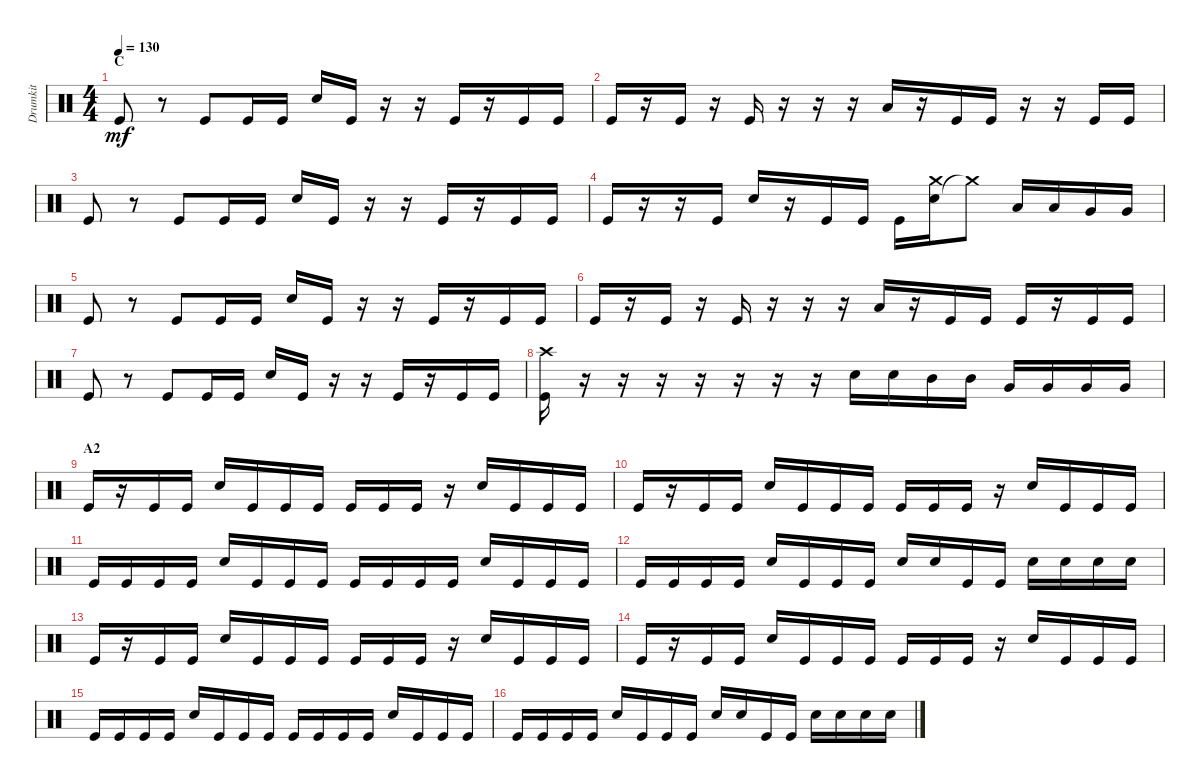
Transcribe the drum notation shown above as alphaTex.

\track ("Drumkit" "Drumkit") {instrument percussion}
\staff {score}
\articulation defaults
\ts (4 4)
\section ("" "C")
\tempo 130
\clef neutral
\ks c "Kick (hit)".8{dy mf}
r.8 "Kick (hit)".8 "Kick (hit)".16 "Kick (hit)".16 "Snare (hit) 2".16 "Kick (hit)".16 r.16 r.16 "Kick (hit)".16 r.16 "Kick (hit)".16 "Kick (hit)".16 |
"Kick (hit)".16 r.16 "Kick (hit)".16 r.16 "Kick (hit)".16 r.16 r.16 r.16 "Low Tom (hit)".16 r.16 "Kick (hit)".16 "Kick (hit)".16 r.16 r.16 "Kick (hit)".16 "Kick (hit)".16 |
"Kick (hit)".8 r.8 "Kick (hit)".8 "Kick (hit)".16 "Kick (hit)".16 "Snare (hit) 2".16 "Kick (hit)".16 r.16 r.16 "Kick (hit)".16 r.16 "Kick (hit)".16 "Kick (hit)".16 |
"Kick (hit)".16 r.16 r.16 "Kick (hit)".16 "Snare (hit) 2".16 r.16 "Kick (hit)".16 "Kick (hit)".16 "Kick (hit)".16 ("Snare (hit) 2" "Crash medium (hit)").16 "Crash medium (hit)"{t}.8 "Low Tom (hit)".16 "Low Tom (hit)".16 "Very Low Tom (hit)".16 "Very Low Tom (hit)".16 |
"Kick (hit)".8 r.8 "Kick (hit)".8 "Kick (hit)".16 "Kick (hit)".16 "Snare (hit) 2".16 "Kick (hit)".16 r.16 r.16 "Kick (hit)".16 r.16 "Kick (hit)".16 "Kick (hit)".16 |
"Kick (hit)".16 r.16 "Kick (hit)".16 r.16 "Kick (hit)".16 r.16 r.16 r.16 "Low Tom (hit)".16 r.16 "Kick (hit)".16 "Kick (hit)".16 "Kick (hit)".16 r.16 "Kick (hit)".16 "Kick (hit)".16 |
"Kick (hit)".8 r.8 "Kick (hit)".8 "Kick (hit)".16 "Kick (hit)".16 "Snare (hit) 2".16 "Kick (hit)".16 r.16 r.16 "Kick (hit)".16 r.16 "Kick (hit)".16 "Kick (hit)".16 |
("Crash high (hit)" "Kick (hit)").16 r.16 r.16 r.16 r.16 r.16 r.16 r.16 "Snare (hit) 2".16 "Snare (hit) 2".16 "Mid Tom (hit)".16 "Mid Tom (hit)".16 "Very Low Tom (hit)".16 "Very Low Tom (hit)".16 "Very Low Tom (hit)".16 "Very Low Tom (hit)".16 |
\section ("" "A2")
"Kick (hit)".16 r.16 "Kick (hit)".16 "Kick (hit)".16 "Snare (hit) 2".16 "Kick (hit)".16 "Kick (hit)".16 "Kick (hit)".16 "Kick (hit)".16 "Kick (hit)".16 "Kick (hit)".16 r.16 "Snare (hit) 2".16 "Kick (hit)".16 "Kick (hit)".16 "Kick (hit)".16 |
"Kick (hit)".16 r.16 "Kick (hit)".16 "Kick (hit)".16 "Snare (hit) 2".16 "Kick (hit)".16 "Kick (hit)".16 "Kick (hit)".16 "Kick (hit)".16 "Kick (hit)".16 "Kick (hit)".16 r.16 "Snare (hit) 2".16 "Kick (hit)".16 "Kick (hit)".16 "Kick (hit)".16 |
"Kick (hit)".16 "Kick (hit)".16 "Kick (hit)".16 "Kick (hit)".16 "Snare (hit) 2".16 "Kick (hit)".16 "Kick (hit)".16 "Kick (hit)".16 "Kick (hit)".16 "Kick (hit)".16 "Kick (hit)".16 "Kick (hit)".16 "Snare (hit) 2".16 "Kick (hit)".16 "Kick (hit)".16 "Kick (hit)".16 |
"Kick (hit)".16 "Kick (hit)".16 "Kick (hit)".16 "Kick (hit)".16 "Snare (hit) 2".16 "Kick (hit)".16 "Kick (hit)".16 "Kick (hit)".16 "Snare (hit) 2".16 "Snare (hit) 2".16 "Kick (hit)".16 "Kick (hit)".16 "Snare (hit) 2".16 "Snare (hit) 2".16 "Snare (hit) 2".16 "Snare (hit) 2".16 |
"Kick (hit)".16 r.16 "Kick (hit)".16 "Kick (hit)".16 "Snare (hit) 2".16 "Kick (hit)".16 "Kick (hit)".16 "Kick (hit)".16 "Kick (hit)".16 "Kick (hit)".16 "Kick (hit)".16 r.16 "Snare (hit) 2".16 "Kick (hit)".16 "Kick (hit)".16 "Kick (hit)".16 |
"Kick (hit)".16 r.16 "Kick (hit)".16 "Kick (hit)".16 "Snare (hit) 2".16 "Kick (hit)".16 "Kick (hit)".16 "Kick (hit)".16 "Kick (hit)".16 "Kick (hit)".16 "Kick (hit)".16 r.16 "Snare (hit) 2".16 "Kick (hit)".16 "Kick (hit)".16 "Kick (hit)".16 |
"Kick (hit)".16 "Kick (hit)".16 "Kick (hit)".16 "Kick (hit)".16 "Snare (hit) 2".16 "Kick (hit)".16 "Kick (hit)".16 "Kick (hit)".16 "Kick (hit)".16 "Kick (hit)".16 "Kick (hit)".16 "Kick (hit)".16 "Snare (hit) 2".16 "Kick (hit)".16 "Kick (hit)".16 "Kick (hit)".16 |
"Kick (hit)".16 "Kick (hit)".16 "Kick (hit)".16 "Kick (hit)".16 "Snare (hit) 2".16 "Kick (hit)".16 "Kick (hit)".16 "Kick (hit)".16 "Snare (hit) 2".16 "Snare (hit) 2".16 "Kick (hit)".16 "Kick (hit)".16 "Snare (hit) 2".16 "Snare (hit) 2".16 "Snare (hit) 2".16 "Snare (hit) 2".16
